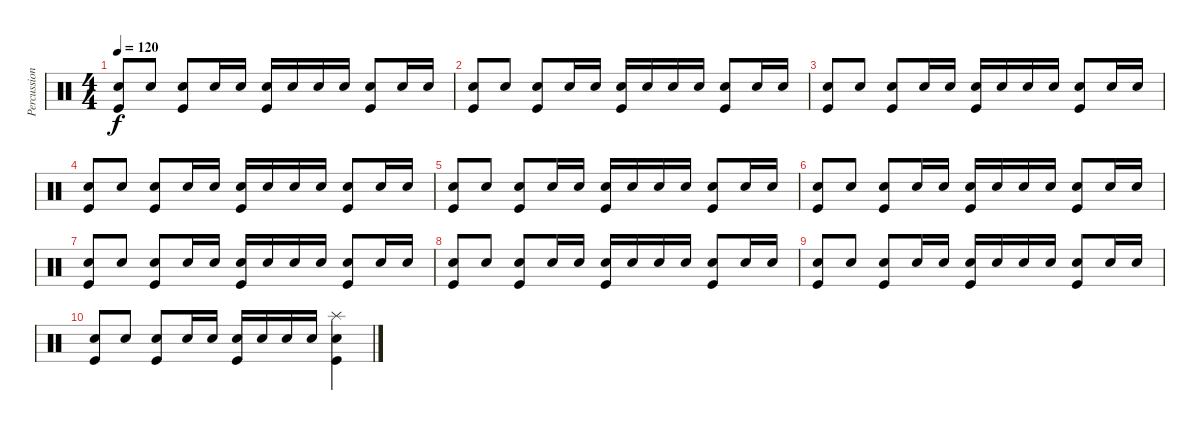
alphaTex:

\track ("Percussion" "Percussion") {instrument percussion}
\staff {score}
\articulation defaults
\ts (4 4)
\tempo 120
\clef neutral
\ks c
("Snare (hit) 2" "Kick (hit)").8{dy f} "Snare (hit) 2".8 ("Snare (hit) 2" "Kick (hit)").8 "Snare (hit) 2".16 "Snare (hit) 2".16 ("Snare (hit) 2" "Kick (hit)").16 "Snare (hit) 2".16 "Snare (hit) 2".16 "Snare (hit) 2".16 ("Snare (hit) 2" "Kick (hit)").8 "Snare (hit) 2".16 "Snare (hit) 2".16 |
("Snare (hit) 2" "Kick (hit)").8 "Snare (hit) 2".8 ("Snare (hit) 2" "Kick (hit)").8 "Snare (hit) 2".16 "Snare (hit) 2".16 ("Snare (hit) 2" "Kick (hit)").16 "Snare (hit) 2".16 "Snare (hit) 2".16 "Snare (hit) 2".16 ("Snare (hit) 2" "Kick (hit)").8 "Snare (hit) 2".16 "Snare (hit) 2".16 |
("Snare (hit) 2" "Kick (hit)").8 "Snare (hit) 2".8 ("Snare (hit) 2" "Kick (hit)").8 "Snare (hit) 2".16 "Snare (hit) 2".16 ("Snare (hit) 2" "Kick (hit)").16 "Snare (hit) 2".16 "Snare (hit) 2".16 "Snare (hit) 2".16 ("Snare (hit) 2" "Kick (hit)").8 "Snare (hit) 2".16 "Snare (hit) 2".16 |
("Snare (hit) 2" "Kick (hit)").8 "Snare (hit) 2".8 ("Snare (hit) 2" "Kick (hit)").8 "Snare (hit) 2".16 "Snare (hit) 2".16 ("Snare (hit) 2" "Kick (hit)").16 "Snare (hit) 2".16 "Snare (hit) 2".16 "Snare (hit) 2".16 ("Snare (hit) 2" "Kick (hit)").8 "Snare (hit) 2".16 "Snare (hit) 2".16 |
("Snare (hit) 2" "Kick (hit)").8 "Snare (hit) 2".8 ("Snare (hit) 2" "Kick (hit)").8 "Snare (hit) 2".16 "Snare (hit) 2".16 ("Snare (hit) 2" "Kick (hit)").16 "Snare (hit) 2".16 "Snare (hit) 2".16 "Snare (hit) 2".16 ("Snare (hit) 2" "Kick (hit)").8 "Snare (hit) 2".16 "Snare (hit) 2".16 |
("Snare (hit) 2" "Kick (hit)").8 "Snare (hit) 2".8 ("Snare (hit) 2" "Kick (hit)").8 "Snare (hit) 2".16 "Snare (hit) 2".16 ("Snare (hit) 2" "Kick (hit)").16 "Snare (hit) 2".16 "Snare (hit) 2".16 "Snare (hit) 2".16 ("Snare (hit) 2" "Kick (hit)").8 "Snare (hit) 2".16 "Snare (hit) 2".16 |
("Snare (hit) 2" "Kick (hit)").8 "Snare (hit) 2".8 ("Snare (hit) 2" "Kick (hit)").8 "Snare (hit) 2".16 "Snare (hit) 2".16 ("Snare (hit) 2" "Kick (hit)").16 "Snare (hit) 2".16 "Snare (hit) 2".16 "Snare (hit) 2".16 ("Snare (hit) 2" "Kick (hit)").8 "Snare (hit) 2".16 "Snare (hit) 2".16 |
("Snare (hit) 2" "Kick (hit)").8 "Snare (hit) 2".8 ("Snare (hit) 2" "Kick (hit)").8 "Snare (hit) 2".16 "Snare (hit) 2".16 ("Snare (hit) 2" "Kick (hit)").16 "Snare (hit) 2".16 "Snare (hit) 2".16 "Snare (hit) 2".16 ("Snare (hit) 2" "Kick (hit)").8 "Snare (hit) 2".16 "Snare (hit) 2".16 |
("Snare (hit) 2" "Kick (hit)").8 "Snare (hit) 2".8 ("Snare (hit) 2" "Kick (hit)").8 "Snare (hit) 2".16 "Snare (hit) 2".16 ("Snare (hit) 2" "Kick (hit)").16 "Snare (hit) 2".16 "Snare (hit) 2".16 "Snare (hit) 2".16 ("Snare (hit) 2" "Kick (hit)").8 "Snare (hit) 2".16 "Snare (hit) 2".16 |
("Snare (hit) 2" "Kick (hit)").8 "Snare (hit) 2".8 ("Snare (hit) 2" "Kick (hit)").8 "Snare (hit) 2".16 "Snare (hit) 2".16 ("Snare (hit) 2" "Kick (hit)").16 "Snare (hit) 2".16 "Snare (hit) 2".16 "Snare (hit) 2".16 ("Splash (hit)" "Snare (hit) 2" "Kick (hit)").4
